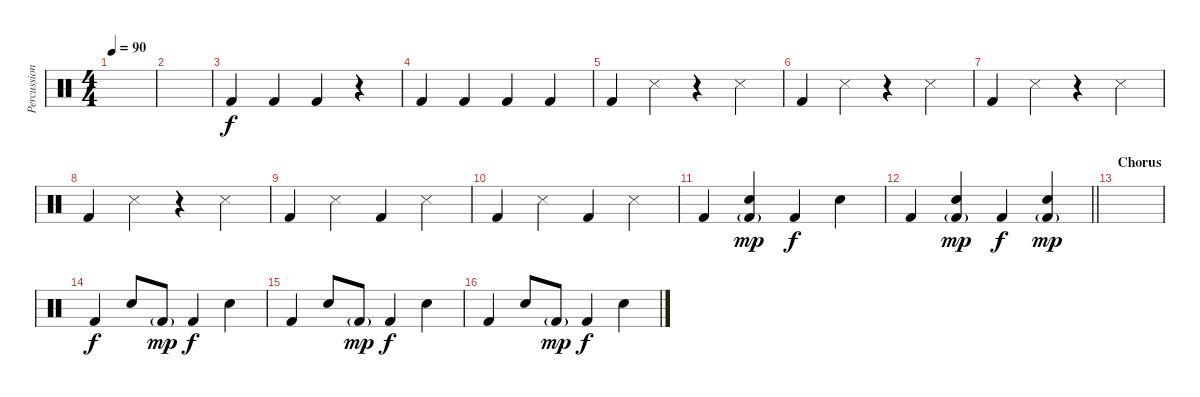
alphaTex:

\track ("Percussion" "Percussion") {instrument percussion}
\staff {score}
\articulation defaults
\ts (4 4)
\tempo 90
\clef neutral
\ks c
|
|
"Kick (hit) 2".4 "Kick (hit) 2".4 "Kick (hit) 2".4 r.4 |
"Kick (hit) 2".4 "Kick (hit) 2".4 "Kick (hit) 2".4 "Kick (hit) 2".4 |
"Kick (hit) 2".4 "Snare (side stick) 3".4 r.4 "Snare (side stick) 3".4 |
"Kick (hit) 2".4 "Snare (side stick) 3".4 r.4 "Snare (side stick) 3".4 |
"Kick (hit) 2".4 "Snare (side stick) 3".4 r.4 "Snare (side stick) 3".4 |
"Kick (hit) 2".4 "Snare (side stick) 3".4 r.4 "Snare (side stick) 3".4 |
"Kick (hit) 2".4 "Snare (side stick) 3".4 "Kick (hit) 2".4 "Snare (side stick) 3".4 |
"Kick (hit) 2".4 "Snare (side stick) 3".4 "Kick (hit) 2".4 "Snare (side stick) 3".4 |
"Kick (hit) 2".4 ("Snare (hit) 2" "Kick (hit) 2"{g}).4{dy mp} "Kick (hit) 2".4{dy f} "Snare (hit) 2".4 |
\barLineRight lightlight "Kick (hit) 2".4
("Snare (hit) 2" "Kick (hit) 2"{g}).4{dy mp} "Kick (hit) 2".4{dy f} ("Snare (hit) 2" "Kick (hit) 2"{g}).4{dy mp} |
\section ("" "Chorus")
|
"Kick (hit) 2".4{dy f} "Snare (hit) 2".8 "Kick (hit) 2"{g}.8{dy mp} "Kick (hit) 2".4{dy f} "Snare (hit) 2".4 |
"Kick (hit) 2".4 "Snare (hit) 2".8 "Kick (hit) 2"{g}.8{dy mp} "Kick (hit) 2".4{dy f} "Snare (hit) 2".4 |
"Kick (hit) 2".4 "Snare (hit) 2".8 "Kick (hit) 2"{g}.8{dy mp} "Kick (hit) 2".4{dy f} "Snare (hit) 2".4
